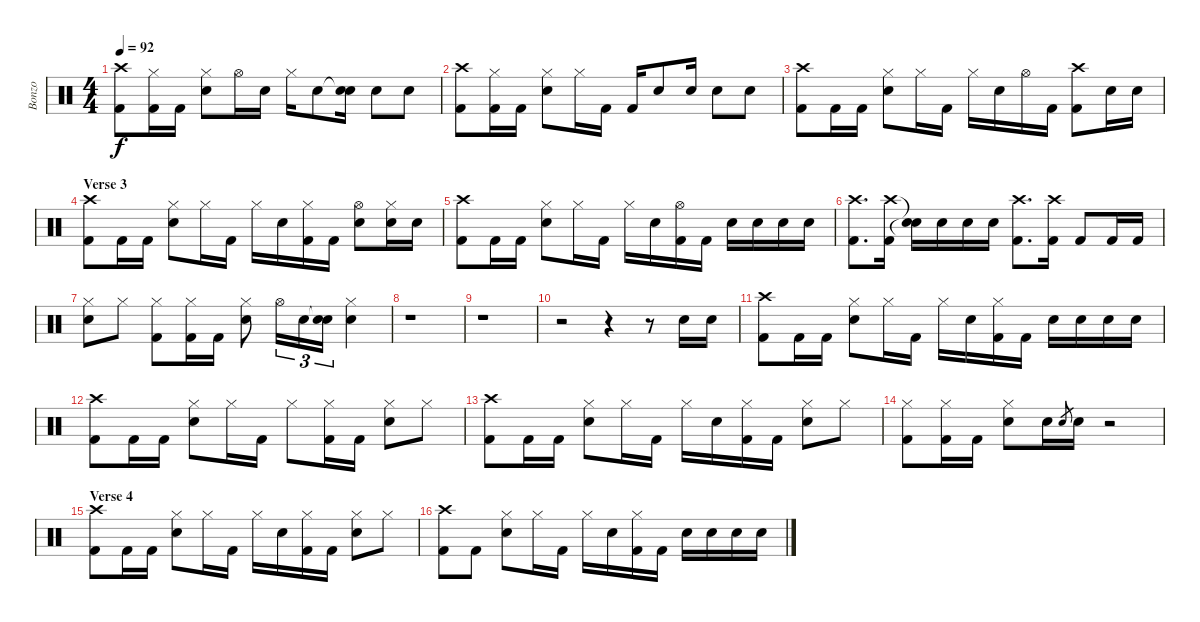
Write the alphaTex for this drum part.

\track ("Bonzo" "Bonzo") {instrument percussion}
\staff {score}
\articulation defaults
\ts (4 4)
\tempo 92
\clef neutral
\ks c
("Crash high (hit)" "Kick (hit) 2").8{dy f} ("Hi-Hat (closed)" "Kick (hit) 2").16 "Kick (hit) 2".16 ("Hi-Hat (closed)" "Snare (hit) 2").8 "Hi-Hat (open)".16 "Snare (hit) 2".16 "Hi-Hat (closed)".16 "Snare (hit) 2".8 ("Snare (hit)"{t} "Snare (hit) 2").16 "Snare (hit) 2".8 "Snare (hit) 2".8 |
("Crash high (hit)" "Kick (hit) 2").8 ("Hi-Hat (closed)" "Kick (hit) 2").16 "Kick (hit) 2".16 ("Hi-Hat (closed)" "Snare (hit) 2").8 "Hi-Hat (closed)".16 "Kick (hit) 2".16 "Kick (hit) 2".16 "Snare (hit) 2".8 "Snare (hit) 2".16 "Snare (hit) 2".8 "Snare (hit) 2".8 |
("Crash high (hit)" "Kick (hit) 2").8 "Kick (hit) 2".16 "Kick (hit) 2".16 ("Hi-Hat (closed)" "Snare (hit) 2").8 "Hi-Hat (closed)".16 "Kick (hit) 2".16 "Hi-Hat (closed)".16 "Snare (hit) 2".16 "Hi-Hat (open)".16 "Kick (hit) 2".16 ("Crash high (hit)" "Kick (hit) 2").8 "Snare (hit) 2".16 "Snare (hit) 2".16 |
\section ("" "Verse 3")
("Crash high (hit)" "Kick (hit) 2").8 "Kick (hit) 2".16 "Kick (hit) 2".16 ("Hi-Hat (closed)" "Snare (hit) 2").8 "Hi-Hat (closed)".16 "Kick (hit) 2".16 "Hi-Hat (closed)".16 "Snare (hit) 2".16 ("Hi-Hat (closed)" "Kick (hit) 2").16 "Kick (hit) 2".16 ("Hi-Hat (open)" "Snare (hit) 2").8 ("Hi-Hat (closed)" "Snare (hit) 2").16 "Snare (hit) 2".16 |
("Crash high (hit)" "Kick (hit) 2").8 "Kick (hit) 2".16 "Kick (hit) 2".16 ("Hi-Hat (closed)" "Snare (hit) 2").8 "Hi-Hat (closed)".16 "Kick (hit) 2".16 "Hi-Hat (closed)".16 "Snare (hit) 2".16 ("Hi-Hat (open)" "Kick (hit) 2").16 "Kick (hit) 2".16 "Snare (hit) 2".16 "Snare (hit) 2".16 "Snare (hit) 2".16 "Snare (hit) 2".16 |
("Crash high (hit)" "Kick (hit) 2").8{d} ("Crash high (hit)" "Kick (hit) 2").16 ("Snare (hit)"{t} "Snare (hit)"{t}).16 "Snare (hit) 2".16 "Snare (hit) 2".16 "Snare (hit) 2".16 ("Crash high (hit)" "Kick (hit) 2").8{d} ("Crash high (hit)" "Kick (hit) 2").16 "Kick (hit) 2".8 "Kick (hit) 2".16 "Kick (hit) 2".16 |
("Hi-Hat (closed)" "Snare (hit) 2").8 "Hi-Hat (closed)".8 ("Hi-Hat (closed)" "Kick (hit) 2").8 ("Hi-Hat (closed)" "Kick (hit) 2").16 "Kick (hit) 2".16 ("Hi-Hat (closed)" "Snare (hit) 2").8 "Hi-Hat (open)".16{tu (3 2)} "Snare (hit) 2".16{tu (3 2)} ("Snare (hit)"{t} "Snare (hit) 2").16{tu (3 2)} ("Hi-Hat (closed)" "Snare (hit) 2").4 |
r.1 |
r.1 |
r.2 r.4 r.8 "Snare (hit) 2".16 "Snare (hit) 2".16 |
("Crash high (hit)" "Kick (hit) 2").8 "Kick (hit) 2".16 "Kick (hit) 2".16 ("Hi-Hat (closed)" "Snare (hit) 2").8 "Hi-Hat (closed)".16 "Kick (hit) 2".16 "Hi-Hat (closed)".16 "Snare (hit) 2".16 ("Hi-Hat (closed)" "Kick (hit) 2").16 "Kick (hit) 2".16 "Snare (hit) 2".16 "Snare (hit) 2".16 "Snare (hit) 2".16 "Snare (hit) 2".16 |
("Crash high (hit)" "Kick (hit) 2").8 "Kick (hit) 2".16 "Kick (hit) 2".16 ("Hi-Hat (closed)" "Snare (hit) 2").8 "Hi-Hat (closed)".16 "Kick (hit) 2".16 "Hi-Hat (closed)".8 ("Hi-Hat (closed)" "Kick (hit) 2").16 "Kick (hit) 2".16 ("Hi-Hat (closed)" "Snare (hit) 2").8 "Hi-Hat (closed)".8 |
("Crash high (hit)" "Kick (hit) 2").8 "Kick (hit) 2".16 "Kick (hit) 2".16 ("Hi-Hat (closed)" "Snare (hit) 2").8 "Hi-Hat (closed)".16 "Kick (hit) 2".16 "Hi-Hat (closed)".16 "Snare (hit) 2".16 ("Hi-Hat (closed)" "Kick (hit) 2").16 "Kick (hit) 2".16 ("Hi-Hat (closed)" "Snare (hit) 2").8 "Hi-Hat (closed)".8 |
("Hi-Hat (closed)" "Kick (hit) 2").8 ("Hi-Hat (closed)" "Kick (hit) 2").16 "Kick (hit) 2".16 ("Hi-Hat (closed)" "Snare (hit) 2").8 "Snare (hit) 2".16 "Snare (hit) 2".8{gr} "Snare (hit) 2".16 r.2 |
\section ("" "Verse 4")
("Crash high (hit)" "Kick (hit) 2").8 "Kick (hit) 2".16 "Kick (hit) 2".16 ("Hi-Hat (closed)" "Snare (hit) 2").8 "Hi-Hat (closed)".16 "Kick (hit) 2".16 "Hi-Hat (closed)".16 "Snare (hit) 2".16 ("Hi-Hat (closed)" "Kick (hit) 2").16 "Kick (hit) 2".16 ("Hi-Hat (closed)" "Snare (hit) 2").8 "Hi-Hat (closed)".8 |
("Crash high (hit)" "Kick (hit) 2").8 "Kick (hit) 2".8 ("Hi-Hat (closed)" "Snare (hit) 2").8 "Hi-Hat (closed)".16 "Kick (hit) 2".16 "Hi-Hat (closed)".16 "Snare (hit) 2".16 ("Hi-Hat (closed)" "Kick (hit) 2").16 "Kick (hit) 2".16 "Snare (hit) 2".16 "Snare (hit) 2".16 "Snare (hit) 2".16 "Snare (hit) 2".16
